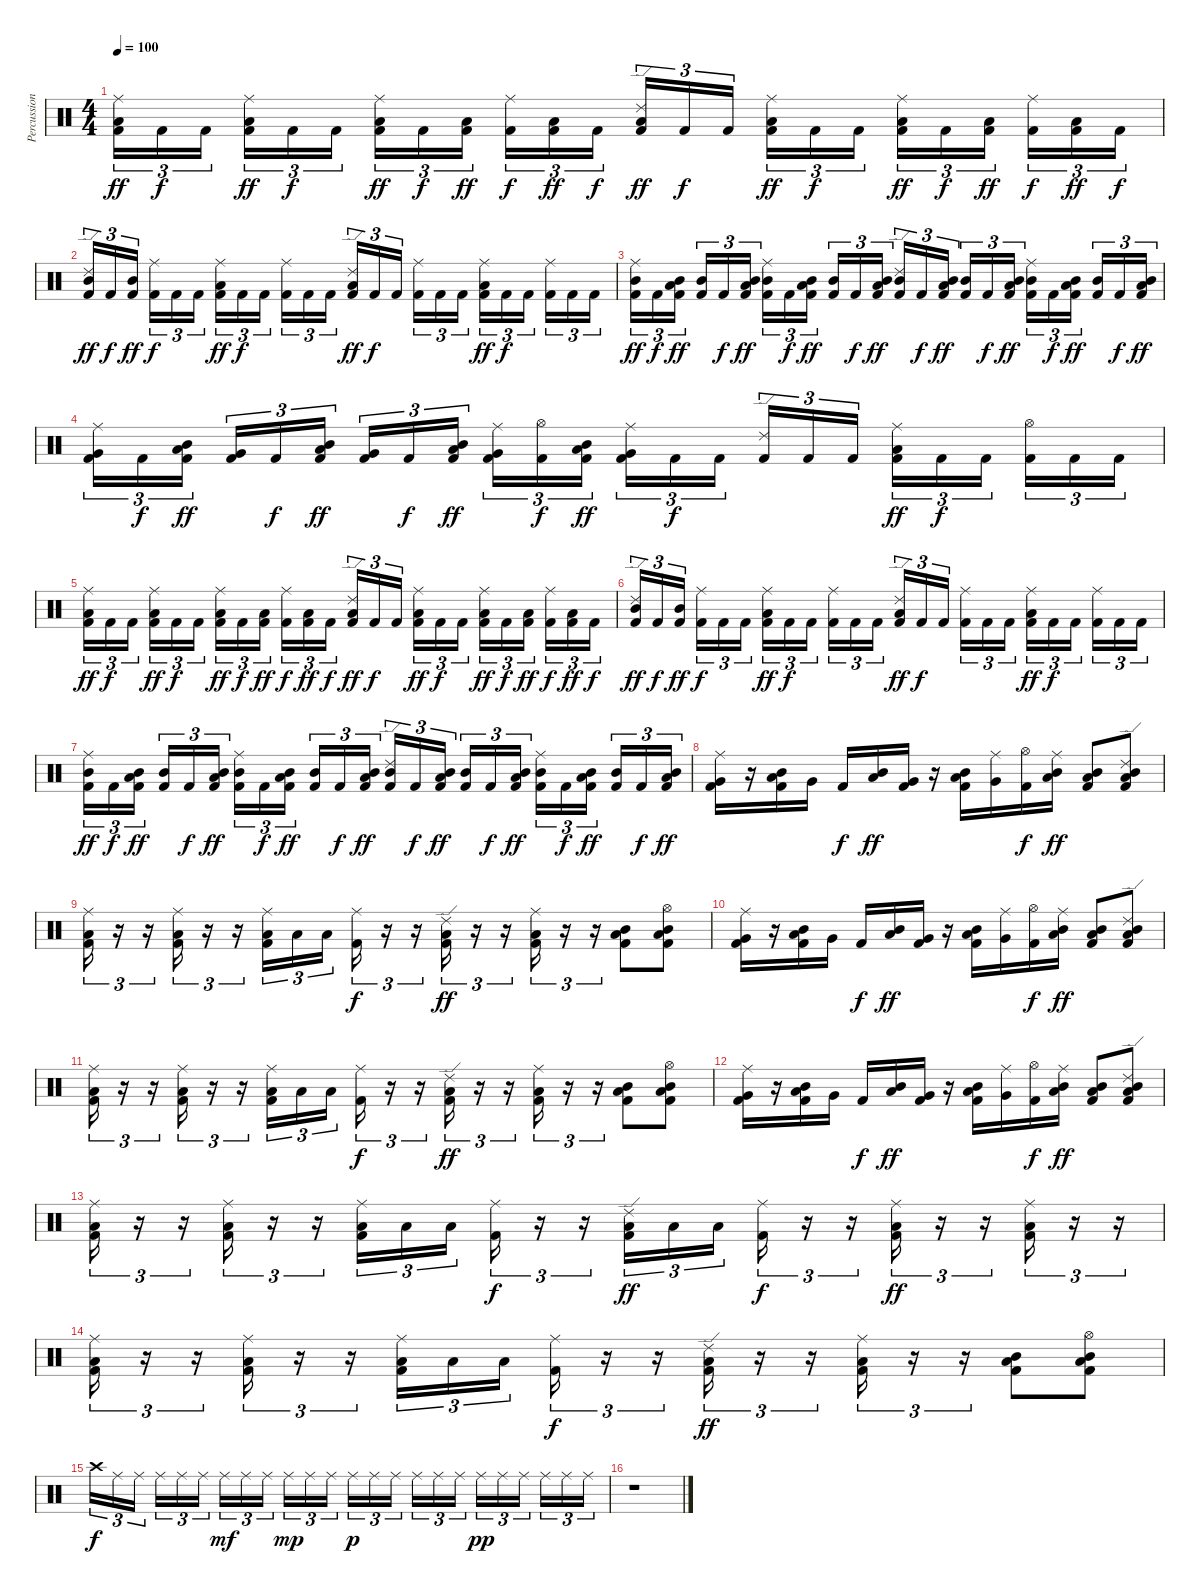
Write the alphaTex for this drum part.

\track ("Percussion" "Percussion") {instrument percussion}
\staff {score}
\articulation defaults
\ts (4 4)
\tempo 100
\clef neutral
\ks c
("Ride (middle)" "Low Tom (hit)" "Kick (hit) 2").16{tu (3 2) dy ff} "Kick (hit) 2".16{tu (3 2) dy f} "Kick (hit) 2".16{tu (3 2)} ("Ride (middle)" "Low Tom (hit)" "Kick (hit) 2").16{tu (3 2) dy ff} "Kick (hit) 2".16{tu (3 2) dy f} "Kick (hit) 2".16{tu (3 2)} ("Ride (middle)" "Low Tom (hit)" "Kick (hit) 2").16{tu (3 2) dy ff} "Kick (hit) 2".16{tu (3 2) dy f} ("Low Tom (hit)" "Kick (hit) 2").16{tu (3 2) dy ff} ("Ride (middle)" "Kick (hit) 2").16{tu (3 2) dy f} ("Low Tom (hit)" "Kick (hit) 2").16{tu (3 2) dy ff} "Kick (hit) 2".16{tu (3 2) dy f} ("Ride (edge) 2" "Low Tom (hit)" "Kick (hit) 2").16{tu (3 2) dy ff} "Kick (hit) 2".16{tu (3 2) dy f} "Kick (hit) 2".16{tu (3 2)} ("Ride (middle)" "Low Tom (hit)" "Kick (hit) 2").16{tu (3 2) dy ff} "Kick (hit) 2".16{tu (3 2) dy f} "Kick (hit) 2".16{tu (3 2)} ("Ride (middle)" "Low Tom (hit)" "Kick (hit) 2").16{tu (3 2) dy ff} "Kick (hit) 2".16{tu (3 2) dy f} ("Low Tom (hit)" "Kick (hit) 2").16{tu (3 2) dy ff} ("Ride (middle)" "Kick (hit) 2").16{tu (3 2) dy f} ("Low Tom (hit)" "Kick (hit) 2").16{tu (3 2) dy ff} "Kick (hit) 2".16{tu (3 2) dy f} |
("Ride (edge) 2" "Mid Tom (hit)" "Kick (hit) 2").16{tu (3 2) dy ff} "Kick (hit) 2".16{tu (3 2) dy f} ("Mid Tom (hit)" "Kick (hit) 2").16{tu (3 2) dy ff} ("Ride (middle)" "Kick (hit) 2").16{tu (3 2) dy f} "Kick (hit) 2".16{tu (3 2)} "Kick (hit) 2".16{tu (3 2)} ("Ride (middle)" "Low Tom (hit)" "Kick (hit) 2").16{tu (3 2) dy ff} "Kick (hit) 2".16{tu (3 2) dy f} "Kick (hit) 2".16{tu (3 2)} ("Ride (middle)" "Kick (hit) 2").16{tu (3 2)} "Kick (hit) 2".16{tu (3 2)} "Kick (hit) 2".16{tu (3 2)} ("Ride (edge) 2" "Low Tom (hit)" "Kick (hit) 2").16{tu (3 2) dy ff} "Kick (hit) 2".16{tu (3 2) dy f} "Kick (hit) 2".16{tu (3 2)} ("Ride (middle)" "Kick (hit) 2").16{tu (3 2)} "Kick (hit) 2".16{tu (3 2)} "Kick (hit) 2".16{tu (3 2)} ("Ride (middle)" "Low Tom (hit)" "Kick (hit) 2").16{tu (3 2) dy ff} "Kick (hit) 2".16{tu (3 2) dy f} "Kick (hit) 2".16{tu (3 2)} ("Ride (middle)" "Kick (hit) 2").16{tu (3 2)} "Kick (hit) 2".16{tu (3 2)} "Kick (hit) 2".16{tu (3 2)} |
("Ride (middle)" "Mid Tom (hit)" "Kick (hit) 2").16{tu (3 2) dy ff} "Kick (hit) 2".16{tu (3 2) dy f} ("Mid Tom (hit)" "Low Tom (hit)" "Kick (hit) 2").16{tu (3 2) dy ff} ("Mid Tom (hit)" "Kick (hit) 2").16{tu (3 2)} "Kick (hit) 2".16{tu (3 2) dy f} ("Mid Tom (hit)" "Low Tom (hit)" "Kick (hit) 2").16{tu (3 2) dy ff} ("Ride (middle)" "Mid Tom (hit)" "Kick (hit) 2").16{tu (3 2)} "Kick (hit) 2".16{tu (3 2) dy f} ("Mid Tom (hit)" "Low Tom (hit)" "Kick (hit) 2").16{tu (3 2) dy ff} ("Mid Tom (hit)" "Kick (hit) 2").16{tu (3 2)} "Kick (hit) 2".16{tu (3 2) dy f} ("Mid Tom (hit)" "Low Tom (hit)" "Kick (hit) 2").16{tu (3 2) dy ff} ("Ride (edge) 2" "Mid Tom (hit)" "Kick (hit) 2").16{tu (3 2)} "Kick (hit) 2".16{tu (3 2) dy f} ("Mid Tom (hit)" "Low Tom (hit)" "Kick (hit) 2").16{tu (3 2) dy ff} ("Mid Tom (hit)" "Kick (hit) 2").16{tu (3 2)} "Kick (hit) 2".16{tu (3 2) dy f} ("Mid Tom (hit)" "Low Tom (hit)" "Kick (hit) 2").16{tu (3 2) dy ff} ("Ride (middle)" "Mid Tom (hit)" "Kick (hit) 2").16{tu (3 2)} "Kick (hit) 2".16{tu (3 2) dy f} ("Mid Tom (hit)" "Low Tom (hit)" "Kick (hit) 2").16{tu (3 2) dy ff} ("Mid Tom (hit)" "Kick (hit) 2").16{tu (3 2)} "Kick (hit) 2".16{tu (3 2) dy f} ("Mid Tom (hit)" "Low Tom (hit)" "Kick (hit) 2").16{tu (3 2) dy ff} |
("Ride (middle)" "Very Low Tom (hit)" "Kick (hit) 2").16{tu (3 2)} "Kick (hit) 2".16{tu (3 2) dy f} ("Mid Tom (hit)" "Low Tom (hit)" "Kick (hit) 2").16{tu (3 2) dy ff} ("Very Low Tom (hit)" "Kick (hit) 2").16{tu (3 2)} "Kick (hit) 2".16{tu (3 2) dy f} ("Mid Tom (hit)" "Low Tom (hit)" "Kick (hit) 2").16{tu (3 2) dy ff} ("Very Low Tom (hit)" "Kick (hit) 2").16{tu (3 2)} "Kick (hit) 2".16{tu (3 2) dy f} ("Mid Tom (hit)" "Low Tom (hit)" "Kick (hit) 2").16{tu (3 2) dy ff} ("Ride (middle)" "Very Low Tom (hit)" "Kick (hit) 2").16{tu (3 2)} ("Hi-Hat (open)" "Kick (hit) 2").16{tu (3 2) dy f} ("Mid Tom (hit)" "Low Tom (hit)" "Kick (hit) 2").16{tu (3 2) dy ff} ("Ride (middle)" "Very Low Tom (hit)" "Kick (hit) 2").16{tu (3 2)} "Kick (hit) 2".16{tu (3 2) dy f} "Kick (hit) 2".16{tu (3 2)} ("Ride (edge) 2" "Kick (hit) 2").16{tu (3 2)} "Kick (hit) 2".16{tu (3 2)} "Kick (hit) 2".16{tu (3 2)} ("Ride (middle)" "Low Tom (hit)" "Kick (hit) 2").16{tu (3 2) dy ff} "Kick (hit) 2".16{tu (3 2) dy f} "Kick (hit) 2".16{tu (3 2)} ("Hi-Hat (open)" "Kick (hit) 2").16{tu (3 2)} "Kick (hit) 2".16{tu (3 2)} "Kick (hit) 2".16{tu (3 2)} |
("Ride (middle)" "Low Tom (hit)" "Kick (hit) 2").16{tu (3 2) dy ff} "Kick (hit) 2".16{tu (3 2) dy f} "Kick (hit) 2".16{tu (3 2)} ("Ride (middle)" "Low Tom (hit)" "Kick (hit) 2").16{tu (3 2) dy ff} "Kick (hit) 2".16{tu (3 2) dy f} "Kick (hit) 2".16{tu (3 2)} ("Ride (middle)" "Low Tom (hit)" "Kick (hit) 2").16{tu (3 2) dy ff} "Kick (hit) 2".16{tu (3 2) dy f} ("Low Tom (hit)" "Kick (hit) 2").16{tu (3 2) dy ff} ("Ride (middle)" "Kick (hit) 2").16{tu (3 2) dy f} ("Low Tom (hit)" "Kick (hit) 2").16{tu (3 2) dy ff} "Kick (hit) 2".16{tu (3 2) dy f} ("Ride (edge) 2" "Low Tom (hit)" "Kick (hit) 2").16{tu (3 2) dy ff} "Kick (hit) 2".16{tu (3 2) dy f} "Kick (hit) 2".16{tu (3 2)} ("Ride (middle)" "Low Tom (hit)" "Kick (hit) 2").16{tu (3 2) dy ff} "Kick (hit) 2".16{tu (3 2) dy f} "Kick (hit) 2".16{tu (3 2)} ("Ride (middle)" "Low Tom (hit)" "Kick (hit) 2").16{tu (3 2) dy ff} "Kick (hit) 2".16{tu (3 2) dy f} ("Low Tom (hit)" "Kick (hit) 2").16{tu (3 2) dy ff} ("Ride (middle)" "Kick (hit) 2").16{tu (3 2) dy f} ("Low Tom (hit)" "Kick (hit) 2").16{tu (3 2) dy ff} "Kick (hit) 2".16{tu (3 2) dy f} |
("Ride (edge) 2" "Mid Tom (hit)" "Kick (hit) 2").16{tu (3 2) dy ff} "Kick (hit) 2".16{tu (3 2) dy f} ("Mid Tom (hit)" "Kick (hit) 2").16{tu (3 2) dy ff} ("Ride (middle)" "Kick (hit) 2").16{tu (3 2) dy f} "Kick (hit) 2".16{tu (3 2)} "Kick (hit) 2".16{tu (3 2)} ("Ride (middle)" "Low Tom (hit)" "Kick (hit) 2").16{tu (3 2) dy ff} "Kick (hit) 2".16{tu (3 2) dy f} "Kick (hit) 2".16{tu (3 2)} ("Ride (middle)" "Kick (hit) 2").16{tu (3 2)} "Kick (hit) 2".16{tu (3 2)} "Kick (hit) 2".16{tu (3 2)} ("Ride (edge) 2" "Low Tom (hit)" "Kick (hit) 2").16{tu (3 2) dy ff} "Kick (hit) 2".16{tu (3 2) dy f} "Kick (hit) 2".16{tu (3 2)} ("Ride (middle)" "Kick (hit) 2").16{tu (3 2)} "Kick (hit) 2".16{tu (3 2)} "Kick (hit) 2".16{tu (3 2)} ("Ride (middle)" "Low Tom (hit)" "Kick (hit) 2").16{tu (3 2) dy ff} "Kick (hit) 2".16{tu (3 2) dy f} "Kick (hit) 2".16{tu (3 2)} ("Ride (middle)" "Kick (hit) 2").16{tu (3 2)} "Kick (hit) 2".16{tu (3 2)} "Kick (hit) 2".16{tu (3 2)} |
("Ride (middle)" "Mid Tom (hit)" "Kick (hit) 2").16{tu (3 2) dy ff} "Kick (hit) 2".16{tu (3 2) dy f} ("Mid Tom (hit)" "Low Tom (hit)" "Kick (hit) 2").16{tu (3 2) dy ff} ("Mid Tom (hit)" "Kick (hit) 2").16{tu (3 2)} "Kick (hit) 2".16{tu (3 2) dy f} ("Mid Tom (hit)" "Low Tom (hit)" "Kick (hit) 2").16{tu (3 2) dy ff} ("Ride (middle)" "Mid Tom (hit)" "Kick (hit) 2").16{tu (3 2)} "Kick (hit) 2".16{tu (3 2) dy f} ("Mid Tom (hit)" "Low Tom (hit)" "Kick (hit) 2").16{tu (3 2) dy ff} ("Mid Tom (hit)" "Kick (hit) 2").16{tu (3 2)} "Kick (hit) 2".16{tu (3 2) dy f} ("Mid Tom (hit)" "Low Tom (hit)" "Kick (hit) 2").16{tu (3 2) dy ff} ("Ride (edge) 2" "Mid Tom (hit)" "Kick (hit) 2").16{tu (3 2)} "Kick (hit) 2".16{tu (3 2) dy f} ("Mid Tom (hit)" "Low Tom (hit)" "Kick (hit) 2").16{tu (3 2) dy ff} ("Mid Tom (hit)" "Kick (hit) 2").16{tu (3 2)} "Kick (hit) 2".16{tu (3 2) dy f} ("Mid Tom (hit)" "Low Tom (hit)" "Kick (hit) 2").16{tu (3 2) dy ff} ("Ride (middle)" "Mid Tom (hit)" "Kick (hit) 2").16{tu (3 2)} "Kick (hit) 2".16{tu (3 2) dy f} ("Mid Tom (hit)" "Low Tom (hit)" "Kick (hit) 2").16{tu (3 2) dy ff} ("Mid Tom (hit)" "Kick (hit) 2").16{tu (3 2)} "Kick (hit) 2".16{tu (3 2) dy f} ("Mid Tom (hit)" "Low Tom (hit)" "Kick (hit) 2").16{tu (3 2) dy ff} |
("Ride (middle)" "Very Low Tom (hit)" "Kick (hit) 2").16 r.16 ("Mid Tom (hit)" "Low Tom (hit)" "Kick (hit) 2").16 "Very Low Tom (hit)".16 "Kick (hit) 2".16{dy f} ("Mid Tom (hit)" "Low Tom (hit)").16{dy ff} ("Very Low Tom (hit)" "Kick (hit) 2").16 r.16 ("Mid Tom (hit)" "Low Tom (hit)" "Kick (hit) 2").16 ("Ride (middle)" "Very Low Tom (hit)").16 ("Hi-Hat (open)" "Kick (hit) 2").16{dy f} ("Ride (middle)" "Mid Tom (hit)" "Low Tom (hit)").16{dy ff} ("Mid Tom (hit)" "Low Tom (hit)" "Kick (hit) 2").8 ("Ride (edge) 2" "Mid Tom (hit)" "Low Tom (hit)" "Kick (hit) 2").8 |
("Ride (middle)" "Low Tom (hit)" "Kick (hit) 2").16{tu (3 2)} r.16{tu (3 2)} r.16{tu (3 2)} ("Ride (middle)" "Low Tom (hit)" "Kick (hit) 2").16{tu (3 2)} r.16{tu (3 2)} r.16{tu (3 2)} ("Ride (middle)" "Low Tom (hit)" "Kick (hit) 2").16{tu (3 2)} "Low Tom (hit)".16{tu (3 2)} "Low Tom (hit)".16{tu (3 2)} ("Ride (middle)" "Kick (hit) 2").16{tu (3 2) dy f} r.16{tu (3 2)} r.16{tu (3 2)} ("Ride (edge) 2" "Low Tom (hit)" "Kick (hit) 2").16{tu (3 2) dy ff} r.16{tu (3 2)} r.16{tu (3 2)} ("Ride (middle)" "Low Tom (hit)" "Kick (hit) 2").16{tu (3 2)} r.16{tu (3 2)} r.16{tu (3 2)} ("Mid Tom (hit)" "Low Tom (hit)" "Kick (hit) 2").8 ("Hi-Hat (open)" "Mid Tom (hit)" "Low Tom (hit)" "Kick (hit) 2").8 |
("Ride (middle)" "Very Low Tom (hit)" "Kick (hit) 2").16 r.16 ("Mid Tom (hit)" "Low Tom (hit)" "Kick (hit) 2").16 "Very Low Tom (hit)".16 "Kick (hit) 2".16{dy f} ("Mid Tom (hit)" "Low Tom (hit)").16{dy ff} ("Very Low Tom (hit)" "Kick (hit) 2").16 r.16 ("Mid Tom (hit)" "Low Tom (hit)" "Kick (hit) 2").16 ("Ride (middle)" "Very Low Tom (hit)").16 ("Hi-Hat (open)" "Kick (hit) 2").16{dy f} ("Ride (middle)" "Mid Tom (hit)" "Low Tom (hit)").16{dy ff} ("Mid Tom (hit)" "Low Tom (hit)" "Kick (hit) 2").8 ("Ride (edge) 2" "Mid Tom (hit)" "Low Tom (hit)" "Kick (hit) 2").8 |
("Ride (middle)" "Low Tom (hit)" "Kick (hit) 2").16{tu (3 2)} r.16{tu (3 2)} r.16{tu (3 2)} ("Ride (middle)" "Low Tom (hit)" "Kick (hit) 2").16{tu (3 2)} r.16{tu (3 2)} r.16{tu (3 2)} ("Ride (middle)" "Low Tom (hit)" "Kick (hit) 2").16{tu (3 2)} "Low Tom (hit)".16{tu (3 2)} "Low Tom (hit)".16{tu (3 2)} ("Ride (middle)" "Kick (hit) 2").16{tu (3 2) dy f} r.16{tu (3 2)} r.16{tu (3 2)} ("Ride (edge) 2" "Low Tom (hit)" "Kick (hit) 2").16{tu (3 2) dy ff} r.16{tu (3 2)} r.16{tu (3 2)} ("Ride (middle)" "Low Tom (hit)" "Kick (hit) 2").16{tu (3 2)} r.16{tu (3 2)} r.16{tu (3 2)} ("Mid Tom (hit)" "Low Tom (hit)" "Kick (hit) 2").8 ("Hi-Hat (open)" "Mid Tom (hit)" "Low Tom (hit)" "Kick (hit) 2").8 |
("Ride (middle)" "Very Low Tom (hit)" "Kick (hit) 2").16 r.16 ("Mid Tom (hit)" "Low Tom (hit)" "Kick (hit) 2").16 "Very Low Tom (hit)".16 "Kick (hit) 2".16{dy f} ("Mid Tom (hit)" "Low Tom (hit)").16{dy ff} ("Very Low Tom (hit)" "Kick (hit) 2").16 r.16 ("Mid Tom (hit)" "Low Tom (hit)" "Kick (hit) 2").16 ("Ride (middle)" "Very Low Tom (hit)").16 ("Hi-Hat (open)" "Kick (hit) 2").16{dy f} ("Ride (middle)" "Mid Tom (hit)" "Low Tom (hit)").16{dy ff} ("Mid Tom (hit)" "Low Tom (hit)" "Kick (hit) 2").8 ("Ride (edge) 2" "Mid Tom (hit)" "Low Tom (hit)" "Kick (hit) 2").8 |
("Ride (middle)" "Low Tom (hit)" "Kick (hit) 2").16{tu (3 2)} r.16{tu (3 2)} r.16{tu (3 2)} ("Ride (middle)" "Low Tom (hit)" "Kick (hit) 2").16{tu (3 2)} r.16{tu (3 2)} r.16{tu (3 2)} ("Ride (middle)" "Low Tom (hit)" "Kick (hit) 2").16{tu (3 2)} "Low Tom (hit)".16{tu (3 2)} "Low Tom (hit)".16{tu (3 2)} ("Ride (middle)" "Kick (hit) 2").16{tu (3 2) dy f} r.16{tu (3 2)} r.16{tu (3 2)} ("Ride (edge) 2" "Low Tom (hit)" "Kick (hit) 2").16{tu (3 2) dy ff} "Low Tom (hit)".16{tu (3 2)} "Low Tom (hit)".16{tu (3 2)} ("Ride (middle)" "Kick (hit) 2").16{tu (3 2) dy f} r.16{tu (3 2)} r.16{tu (3 2)} ("Ride (middle)" "Low Tom (hit)" "Kick (hit) 2").16{tu (3 2) dy ff} r.16{tu (3 2)} r.16{tu (3 2)} ("Ride (middle)" "Low Tom (hit)" "Kick (hit) 2").16{tu (3 2)} r.16{tu (3 2)} r.16{tu (3 2)} |
("Ride (middle)" "Low Tom (hit)" "Kick (hit) 2").16{tu (3 2)} r.16{tu (3 2)} r.16{tu (3 2)} ("Ride (middle)" "Low Tom (hit)" "Kick (hit) 2").16{tu (3 2)} r.16{tu (3 2)} r.16{tu (3 2)} ("Ride (middle)" "Low Tom (hit)" "Kick (hit) 2").16{tu (3 2)} "Low Tom (hit)".16{tu (3 2)} "Low Tom (hit)".16{tu (3 2)} ("Ride (middle)" "Kick (hit) 2").16{tu (3 2) dy f} r.16{tu (3 2)} r.16{tu (3 2)} ("Ride (edge) 2" "Low Tom (hit)" "Kick (hit) 2").16{tu (3 2) dy ff} r.16{tu (3 2)} r.16{tu (3 2)} ("Ride (middle)" "Low Tom (hit)" "Kick (hit) 2").16{tu (3 2)} r.16{tu (3 2)} r.16{tu (3 2)} ("Mid Tom (hit)" "Low Tom (hit)" "Kick (hit) 2").8 ("Hi-Hat (open)" "Mid Tom (hit)" "Low Tom (hit)" "Kick (hit) 2").8 |
"Crash high (hit)".16{tu (3 2) dy f} "Ride (middle)".16{tu (3 2)} "Ride (middle)".16{tu (3 2)} "Ride (middle)".16{tu (3 2)} "Ride (middle)".16{tu (3 2)} "Ride (middle)".16{tu (3 2)} "Ride (middle)".16{tu (3 2) dy mf} "Ride (middle)".16{tu (3 2)} "Ride (middle)".16{tu (3 2)} "Ride (middle)".16{tu (3 2) dy mp} "Ride (middle)".16{tu (3 2)} "Ride (middle)".16{tu (3 2)} "Ride (middle)".16{tu (3 2) dy p} "Ride (middle)".16{tu (3 2)} "Ride (middle)".16{tu (3 2)} "Ride (middle)".16{tu (3 2)} "Ride (middle)".16{tu (3 2)} "Ride (middle)".16{tu (3 2)} "Ride (middle)".16{tu (3 2) dy pp} "Ride (middle)".16{tu (3 2)} "Ride (middle)".16{tu (3 2)} "Ride (middle)".16{tu (3 2)} "Ride (middle)".16{tu (3 2)} "Ride (middle)".16{tu (3 2)} |
r.1
